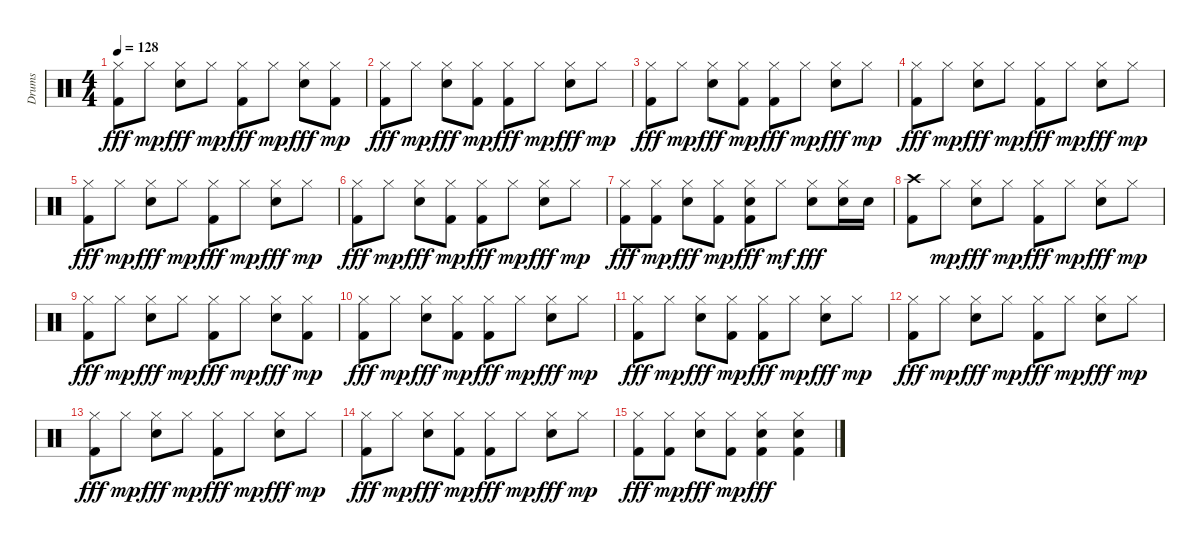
\track ("Drums" "Drums") {instrument percussion}
\staff {score}
\articulation defaults
\ts (4 4)
\tempo 128
\clef neutral
\ks c
("Hi-Hat (closed)" "Kick (hit) 2").8{dy fff} "Hi-Hat (closed)".8{dy mp} ("Hi-Hat (closed)" "Snare (hit) 2").8{dy fff} "Hi-Hat (closed)".8{dy mp} ("Hi-Hat (closed)" "Kick (hit) 2").8{dy fff} "Hi-Hat (closed)".8{dy mp} ("Hi-Hat (closed)" "Snare (hit) 2").8{dy fff} ("Kick (hit) 2" "Hi-Hat (closed)").8{dy mp} |
("Hi-Hat (closed)" "Kick (hit) 2").8{dy fff} "Hi-Hat (closed)".8{dy mp} ("Hi-Hat (closed)" "Snare (hit) 2").8{dy fff} ("Kick (hit) 2" "Hi-Hat (closed)").8{dy mp} ("Hi-Hat (closed)" "Kick (hit) 2").8{dy fff} "Hi-Hat (closed)".8{dy mp} ("Hi-Hat (closed)" "Snare (hit) 2").8{dy fff} "Hi-Hat (closed)".8{dy mp} |
("Hi-Hat (closed)" "Kick (hit) 2").8{dy fff} "Hi-Hat (closed)".8{dy mp} ("Hi-Hat (closed)" "Snare (hit) 2").8{dy fff} ("Kick (hit) 2" "Hi-Hat (closed)").8{dy mp} ("Hi-Hat (closed)" "Kick (hit) 2").8{dy fff} "Hi-Hat (closed)".8{dy mp} ("Hi-Hat (closed)" "Snare (hit) 2").8{dy fff} "Hi-Hat (closed)".8{dy mp} |
("Hi-Hat (closed)" "Kick (hit) 2").8{dy fff} "Hi-Hat (closed)".8{dy mp} ("Hi-Hat (closed)" "Snare (hit) 2").8{dy fff} "Hi-Hat (closed)".8{dy mp} ("Hi-Hat (closed)" "Kick (hit) 2").8{dy fff} "Hi-Hat (closed)".8{dy mp} ("Hi-Hat (closed)" "Snare (hit) 2").8{dy fff} "Hi-Hat (closed)".8{dy mp} |
("Hi-Hat (closed)" "Kick (hit) 2").8{dy fff} "Hi-Hat (closed)".8{dy mp} ("Hi-Hat (closed)" "Snare (hit) 2").8{dy fff} "Hi-Hat (closed)".8{dy mp} ("Hi-Hat (closed)" "Kick (hit) 2").8{dy fff} "Hi-Hat (closed)".8{dy mp} ("Hi-Hat (closed)" "Snare (hit) 2").8{dy fff} "Hi-Hat (closed)".8{dy mp} |
("Hi-Hat (closed)" "Kick (hit) 2").8{dy fff} "Hi-Hat (closed)".8{dy mp} ("Hi-Hat (closed)" "Snare (hit) 2").8{dy fff} ("Kick (hit) 2" "Hi-Hat (closed)").8{dy mp} ("Hi-Hat (closed)" "Kick (hit) 2").8{dy fff} "Hi-Hat (closed)".8{dy mp} ("Hi-Hat (closed)" "Snare (hit) 2").8{dy fff} "Hi-Hat (closed)".8{dy mp} |
("Hi-Hat (closed)" "Kick (hit) 2").8{dy fff} ("Kick (hit) 2" "Hi-Hat (closed)").8{dy mp} ("Hi-Hat (closed)" "Snare (hit) 2").8{dy fff} ("Kick (hit) 2" "Hi-Hat (closed)").8{dy mp} ("Hi-Hat (closed)" "Snare (hit) 2" "Kick (hit) 2").8{dy fff} "Hi-Hat (closed)".8{dy mf} ("Hi-Hat (closed)" "Snare (hit) 2").8{dy fff} ("Hi-Hat (closed)" "Snare (hit) 2").16 "Snare (hit) 2".16 |
("Crash high (hit)" "Kick (hit) 2").8 "Hi-Hat (closed)".8{dy mp} ("Hi-Hat (closed)" "Snare (hit) 2").8{dy fff} "Hi-Hat (closed)".8{dy mp} ("Hi-Hat (closed)" "Kick (hit) 2").8{dy fff} "Hi-Hat (closed)".8{dy mp} ("Hi-Hat (closed)" "Snare (hit) 2").8{dy fff} "Hi-Hat (closed)".8{dy mp} |
("Hi-Hat (closed)" "Kick (hit) 2").8{dy fff} "Hi-Hat (closed)".8{dy mp} ("Hi-Hat (closed)" "Snare (hit) 2").8{dy fff} "Hi-Hat (closed)".8{dy mp} ("Hi-Hat (closed)" "Kick (hit) 2").8{dy fff} "Hi-Hat (closed)".8{dy mp} ("Hi-Hat (closed)" "Snare (hit) 2").8{dy fff} ("Kick (hit) 2" "Hi-Hat (closed)").8{dy mp} |
("Hi-Hat (closed)" "Kick (hit) 2").8{dy fff} "Hi-Hat (closed)".8{dy mp} ("Hi-Hat (closed)" "Snare (hit) 2").8{dy fff} ("Kick (hit) 2" "Hi-Hat (closed)").8{dy mp} ("Hi-Hat (closed)" "Kick (hit) 2").8{dy fff} "Hi-Hat (closed)".8{dy mp} ("Hi-Hat (closed)" "Snare (hit) 2").8{dy fff} "Hi-Hat (closed)".8{dy mp} |
("Hi-Hat (closed)" "Kick (hit) 2").8{dy fff} "Hi-Hat (closed)".8{dy mp} ("Hi-Hat (closed)" "Snare (hit) 2").8{dy fff} ("Kick (hit) 2" "Hi-Hat (closed)").8{dy mp} ("Hi-Hat (closed)" "Kick (hit) 2").8{dy fff} "Hi-Hat (closed)".8{dy mp} ("Hi-Hat (closed)" "Snare (hit) 2").8{dy fff} "Hi-Hat (closed)".8{dy mp} |
("Hi-Hat (closed)" "Kick (hit) 2").8{dy fff} "Hi-Hat (closed)".8{dy mp} ("Hi-Hat (closed)" "Snare (hit) 2").8{dy fff} "Hi-Hat (closed)".8{dy mp} ("Hi-Hat (closed)" "Kick (hit) 2").8{dy fff} "Hi-Hat (closed)".8{dy mp} ("Hi-Hat (closed)" "Snare (hit) 2").8{dy fff} "Hi-Hat (closed)".8{dy mp} |
("Hi-Hat (closed)" "Kick (hit) 2").8{dy fff} "Hi-Hat (closed)".8{dy mp} ("Hi-Hat (closed)" "Snare (hit) 2").8{dy fff} "Hi-Hat (closed)".8{dy mp} ("Hi-Hat (closed)" "Kick (hit) 2").8{dy fff} "Hi-Hat (closed)".8{dy mp} ("Hi-Hat (closed)" "Snare (hit) 2").8{dy fff} "Hi-Hat (closed)".8{dy mp} |
("Hi-Hat (closed)" "Kick (hit) 2").8{dy fff} "Hi-Hat (closed)".8{dy mp} ("Hi-Hat (closed)" "Snare (hit) 2").8{dy fff} ("Kick (hit) 2" "Hi-Hat (closed)").8{dy mp} ("Hi-Hat (closed)" "Kick (hit) 2").8{dy fff} "Hi-Hat (closed)".8{dy mp} ("Hi-Hat (closed)" "Snare (hit) 2").8{dy fff} "Hi-Hat (closed)".8{dy mp} |
("Hi-Hat (closed)" "Kick (hit) 2").8{dy fff} ("Kick (hit) 2" "Hi-Hat (closed)").8{dy mp} ("Hi-Hat (closed)" "Snare (hit) 2").8{dy fff} ("Kick (hit) 2" "Hi-Hat (closed)").8{dy mp} ("Hi-Hat (closed)" "Snare (hit) 2" "Kick (hit) 2").4{dy fff} ("Hi-Hat (closed)" "Kick (hit) 2" "Snare (hit) 2").4
